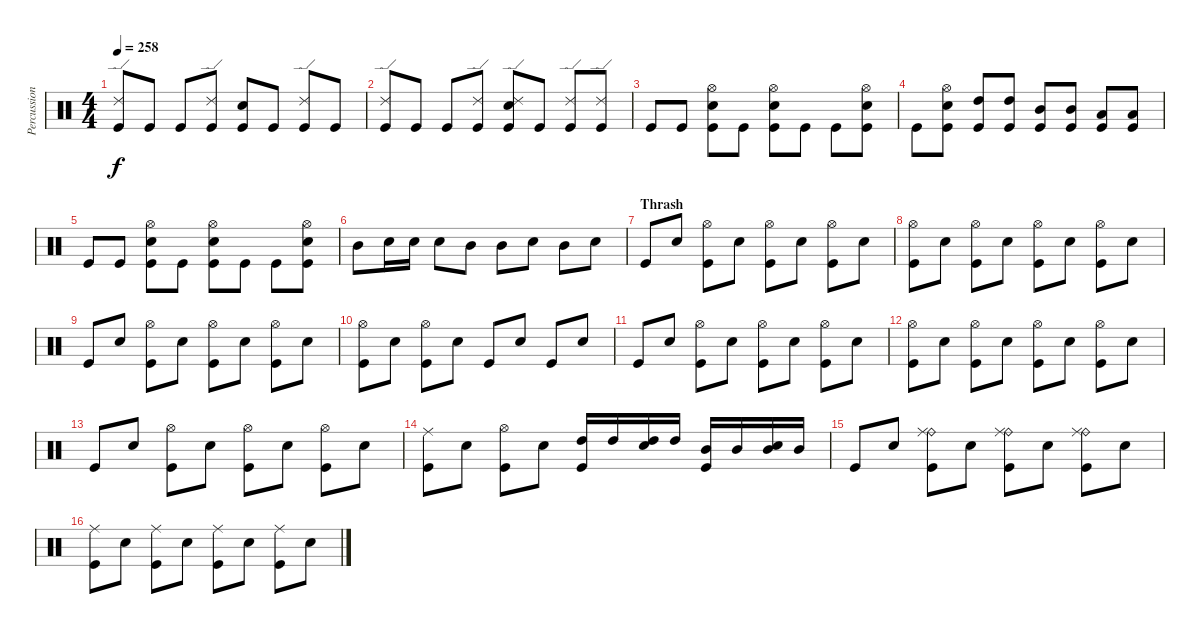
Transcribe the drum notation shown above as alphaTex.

\track ("Percussion" "Percussion") {instrument percussion}
\staff {score}
\articulation defaults
\ts (4 4)
\tempo 258
\clef neutral
\ks c
("Ride (edge) 2" "Kick (hit)").8{dy f} "Kick (hit)".8 "Kick (hit)".8 ("Ride (edge) 2" "Kick (hit)").8 ("Snare (hit) 2" "Kick (hit)").8 "Kick (hit)".8 ("Ride (edge) 2" "Kick (hit)").8 "Kick (hit)".8 |
("Ride (edge) 2" "Kick (hit)").8 "Kick (hit)".8 "Kick (hit)".8 ("Ride (edge) 2" "Kick (hit)").8 ("Snare (hit) 2" "Ride (edge) 2" "Kick (hit)").8 "Kick (hit)".8 ("Ride (edge) 2" "Kick (hit)").8 ("Ride (edge) 2" "Kick (hit)").8 |
"Kick (hit)".8 "Kick (hit)".8 ("Snare (hit) 2" "Hi-Hat (open)" "Kick (hit)").8 "Kick (hit)".8 ("Snare (hit) 2" "Hi-Hat (open)" "Kick (hit)").8 "Kick (hit)".8 "Kick (hit)".8 ("Snare (hit) 2" "Hi-Hat (open)" "Kick (hit)").8 |
"Kick (hit)".8 ("Snare (hit) 2" "Hi-Hat (open)" "Kick (hit)").8 ("High Tom (hit)" "Kick (hit)").8 ("High Tom (hit)" "Kick (hit)").8 ("Mid Tom (hit)" "Kick (hit)").8 ("Mid Tom (hit)" "Kick (hit)").8 ("Low Tom (hit)" "Kick (hit)").8 ("Low Tom (hit)" "Kick (hit)").8 |
"Kick (hit)".8 "Kick (hit)".8 ("Snare (hit) 2" "Hi-Hat (open)" "Kick (hit)").8 "Kick (hit)".8 ("Snare (hit) 2" "Hi-Hat (open)" "Kick (hit)").8 "Kick (hit)".8 "Kick (hit)".8 ("Snare (hit) 2" "Hi-Hat (open)" "Kick (hit)").8 |
"Mid Tom (hit)".8 "Snare (hit) 2".16 "Snare (hit) 2".16 "Snare (hit) 2".8 "Mid Tom (hit)".8 "Mid Tom (hit)".8 "Snare (hit) 2".8 "Mid Tom (hit)".8 "Snare (hit) 2".8 |
\section ("" "Thrash")
"Kick (hit)".8 "Snare (hit) 2".8 ("Hi-Hat (open)" "Kick (hit)").8 "Snare (hit) 2".8 ("Hi-Hat (open)" "Kick (hit)").8 "Snare (hit) 2".8 ("Hi-Hat (open)" "Kick (hit)").8 "Snare (hit) 2".8 |
("Hi-Hat (open)" "Kick (hit)").8 "Snare (hit) 2".8 ("Hi-Hat (open)" "Kick (hit)").8 "Snare (hit) 2".8 ("Hi-Hat (open)" "Kick (hit)").8 "Snare (hit) 2".8 ("Hi-Hat (open)" "Kick (hit)").8 "Snare (hit) 2".8 |
"Kick (hit)".8 "Snare (hit) 2".8 ("Hi-Hat (open)" "Kick (hit)").8 "Snare (hit) 2".8 ("Hi-Hat (open)" "Kick (hit)").8 "Snare (hit) 2".8 ("Hi-Hat (open)" "Kick (hit)").8 "Snare (hit) 2".8 |
("Hi-Hat (open)" "Kick (hit)").8 "Snare (hit) 2".8 ("Hi-Hat (open)" "Kick (hit)").8 "Snare (hit) 2".8 "Kick (hit)".8 "Snare (hit) 2".8 "Kick (hit)".8 "Snare (hit) 2".8 |
"Kick (hit)".8 "Snare (hit) 2".8 ("Hi-Hat (open)" "Kick (hit)").8 "Snare (hit) 2".8 ("Hi-Hat (open)" "Kick (hit)").8 "Snare (hit) 2".8 ("Hi-Hat (open)" "Kick (hit)").8 "Snare (hit) 2".8 |
("Hi-Hat (open)" "Kick (hit)").8 "Snare (hit) 2".8 ("Hi-Hat (open)" "Kick (hit)").8 "Snare (hit) 2".8 ("Hi-Hat (open)" "Kick (hit)").8 "Snare (hit) 2".8 ("Hi-Hat (open)" "Kick (hit)").8 "Snare (hit) 2".8 |
"Kick (hit)".8 "Snare (hit) 2".8 ("Hi-Hat (open)" "Kick (hit)").8 "Snare (hit) 2".8 ("Hi-Hat (open)" "Kick (hit)").8 "Snare (hit) 2".8 ("Hi-Hat (open)" "Kick (hit)").8 "Snare (hit) 2".8 |
("Ride (middle)" "Kick (hit)").8 "Snare (hit) 2".8 ("Hi-Hat (open)" "Kick (hit)").8 "Snare (hit) 2".8 ("High Tom (hit)" "Kick (hit)").16 "High Tom (hit)".16 ("Snare (hit) 2" "High Tom (hit)").16 "High Tom (hit)".16 ("Mid Tom (hit)" "Kick (hit)").16 "Mid Tom (hit)".16 ("Snare (hit) 2" "Mid Tom (hit)").16 "Mid Tom (hit)".16 |
"Kick (hit)".8 "Snare (hit) 2".8 ("Ride (bell)" "Ride (middle)" "Kick (hit)").8 "Snare (hit) 2".8 ("Ride (bell)" "Ride (middle)" "Kick (hit)").8 "Snare (hit) 2".8 ("Ride (bell)" "Ride (middle)" "Kick (hit)").8 "Snare (hit) 2".8 |
("Ride (middle)" "Kick (hit)").8 "Snare (hit) 2".8 ("Ride (middle)" "Kick (hit)").8 "Snare (hit) 2".8 ("Ride (middle)" "Kick (hit)").8 "Snare (hit) 2".8 ("Ride (middle)" "Kick (hit)").8 "Snare (hit) 2".8
